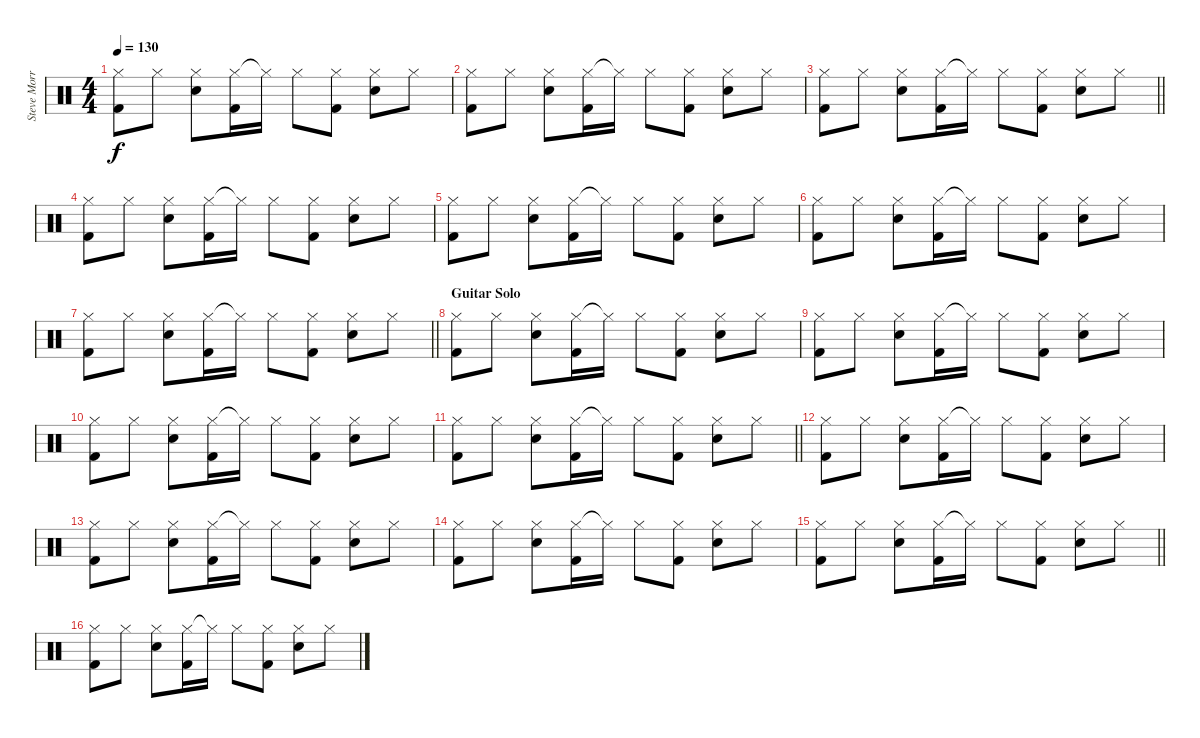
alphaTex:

\track ("Steve Morris" "Steve Morr") {instrument percussion}
\staff {score}
\articulation defaults
\ts (4 4)
\tempo 130
\clef neutral
\ks c
("Hi-Hat (closed)" "Kick (hit) 2").8{dy f} "Hi-Hat (closed)".8 ("Hi-Hat (closed)" "Electric Snare (hit)").8 ("Hi-Hat (closed)" "Kick (hit) 2").16 "Hi-Hat (closed)"{t}.16 "Hi-Hat (closed)".8 ("Hi-Hat (closed)" "Kick (hit) 2").8 ("Hi-Hat (closed)" "Electric Snare (hit)").8 "Hi-Hat (closed)".8 |
("Hi-Hat (closed)" "Kick (hit) 2").8 "Hi-Hat (closed)".8 ("Hi-Hat (closed)" "Electric Snare (hit)").8 ("Hi-Hat (closed)" "Kick (hit) 2").16 "Hi-Hat (closed)"{t}.16 "Hi-Hat (closed)".8 ("Hi-Hat (closed)" "Kick (hit) 2").8 ("Hi-Hat (closed)" "Electric Snare (hit)").8 "Hi-Hat (closed)".8 |
\barLineRight lightlight
("Hi-Hat (closed)" "Kick (hit) 2").8 "Hi-Hat (closed)".8 ("Hi-Hat (closed)" "Electric Snare (hit)").8 ("Hi-Hat (closed)" "Kick (hit) 2").16 "Hi-Hat (closed)"{t}.16 "Hi-Hat (closed)".8 ("Hi-Hat (closed)" "Kick (hit) 2").8 ("Hi-Hat (closed)" "Electric Snare (hit)").8 "Hi-Hat (closed)".8 |
("Hi-Hat (closed)" "Kick (hit) 2").8 "Hi-Hat (closed)".8 ("Hi-Hat (closed)" "Electric Snare (hit)").8 ("Hi-Hat (closed)" "Kick (hit) 2").16 "Hi-Hat (closed)"{t}.16 "Hi-Hat (closed)".8 ("Hi-Hat (closed)" "Kick (hit) 2").8 ("Hi-Hat (closed)" "Electric Snare (hit)").8 "Hi-Hat (closed)".8 |
("Hi-Hat (closed)" "Kick (hit) 2").8 "Hi-Hat (closed)".8 ("Hi-Hat (closed)" "Electric Snare (hit)").8 ("Hi-Hat (closed)" "Kick (hit) 2").16 "Hi-Hat (closed)"{t}.16 "Hi-Hat (closed)".8 ("Hi-Hat (closed)" "Kick (hit) 2").8 ("Hi-Hat (closed)" "Electric Snare (hit)").8 "Hi-Hat (closed)".8 |
("Hi-Hat (closed)" "Kick (hit) 2").8 "Hi-Hat (closed)".8 ("Hi-Hat (closed)" "Electric Snare (hit)").8 ("Hi-Hat (closed)" "Kick (hit) 2").16 "Hi-Hat (closed)"{t}.16 "Hi-Hat (closed)".8 ("Hi-Hat (closed)" "Kick (hit) 2").8 ("Hi-Hat (closed)" "Electric Snare (hit)").8 "Hi-Hat (closed)".8 |
\barLineRight lightlight
("Hi-Hat (closed)" "Kick (hit) 2").8 "Hi-Hat (closed)".8 ("Hi-Hat (closed)" "Electric Snare (hit)").8 ("Hi-Hat (closed)" "Kick (hit) 2").16 "Hi-Hat (closed)"{t}.16 "Hi-Hat (closed)".8 ("Hi-Hat (closed)" "Kick (hit) 2").8 ("Hi-Hat (closed)" "Electric Snare (hit)").8 "Hi-Hat (closed)".8 |
\section ("" "Guitar Solo")
("Hi-Hat (closed)" "Kick (hit) 2").8 "Hi-Hat (closed)".8 ("Hi-Hat (closed)" "Electric Snare (hit)").8 ("Hi-Hat (closed)" "Kick (hit) 2").16 "Hi-Hat (closed)"{t}.16 "Hi-Hat (closed)".8 ("Hi-Hat (closed)" "Kick (hit) 2").8 ("Hi-Hat (closed)" "Electric Snare (hit)").8 "Hi-Hat (closed)".8 |
("Hi-Hat (closed)" "Kick (hit) 2").8 "Hi-Hat (closed)".8 ("Hi-Hat (closed)" "Electric Snare (hit)").8 ("Hi-Hat (closed)" "Kick (hit) 2").16 "Hi-Hat (closed)"{t}.16 "Hi-Hat (closed)".8 ("Hi-Hat (closed)" "Kick (hit) 2").8 ("Hi-Hat (closed)" "Electric Snare (hit)").8 "Hi-Hat (closed)".8 |
("Hi-Hat (closed)" "Kick (hit) 2").8 "Hi-Hat (closed)".8 ("Hi-Hat (closed)" "Electric Snare (hit)").8 ("Hi-Hat (closed)" "Kick (hit) 2").16 "Hi-Hat (closed)"{t}.16 "Hi-Hat (closed)".8 ("Hi-Hat (closed)" "Kick (hit) 2").8 ("Hi-Hat (closed)" "Electric Snare (hit)").8 "Hi-Hat (closed)".8 |
\barLineRight lightlight
("Hi-Hat (closed)" "Kick (hit) 2").8 "Hi-Hat (closed)".8 ("Hi-Hat (closed)" "Electric Snare (hit)").8 ("Hi-Hat (closed)" "Kick (hit) 2").16 "Hi-Hat (closed)"{t}.16 "Hi-Hat (closed)".8 ("Hi-Hat (closed)" "Kick (hit) 2").8 ("Hi-Hat (closed)" "Electric Snare (hit)").8 "Hi-Hat (closed)".8 |
("Hi-Hat (closed)" "Kick (hit) 2").8 "Hi-Hat (closed)".8 ("Hi-Hat (closed)" "Electric Snare (hit)").8 ("Hi-Hat (closed)" "Kick (hit) 2").16 "Hi-Hat (closed)"{t}.16 "Hi-Hat (closed)".8 ("Hi-Hat (closed)" "Kick (hit) 2").8 ("Hi-Hat (closed)" "Electric Snare (hit)").8 "Hi-Hat (closed)".8 |
("Hi-Hat (closed)" "Kick (hit) 2").8 "Hi-Hat (closed)".8 ("Hi-Hat (closed)" "Electric Snare (hit)").8 ("Hi-Hat (closed)" "Kick (hit) 2").16 "Hi-Hat (closed)"{t}.16 "Hi-Hat (closed)".8 ("Hi-Hat (closed)" "Kick (hit) 2").8 ("Hi-Hat (closed)" "Electric Snare (hit)").8 "Hi-Hat (closed)".8 |
("Hi-Hat (closed)" "Kick (hit) 2").8 "Hi-Hat (closed)".8 ("Hi-Hat (closed)" "Electric Snare (hit)").8 ("Hi-Hat (closed)" "Kick (hit) 2").16 "Hi-Hat (closed)"{t}.16 "Hi-Hat (closed)".8 ("Hi-Hat (closed)" "Kick (hit) 2").8 ("Hi-Hat (closed)" "Electric Snare (hit)").8 "Hi-Hat (closed)".8 |
\barLineRight lightlight
("Hi-Hat (closed)" "Kick (hit) 2").8 "Hi-Hat (closed)".8 ("Hi-Hat (closed)" "Electric Snare (hit)").8 ("Hi-Hat (closed)" "Kick (hit) 2").16 "Hi-Hat (closed)"{t}.16 "Hi-Hat (closed)".8 ("Hi-Hat (closed)" "Kick (hit) 2").8 ("Hi-Hat (closed)" "Electric Snare (hit)").8 "Hi-Hat (closed)".8 |
("Hi-Hat (closed)" "Kick (hit) 2").8 "Hi-Hat (closed)".8 ("Hi-Hat (closed)" "Electric Snare (hit)").8 ("Hi-Hat (closed)" "Kick (hit) 2").16 "Hi-Hat (closed)"{t}.16 "Hi-Hat (closed)".8 ("Hi-Hat (closed)" "Kick (hit) 2").8 ("Hi-Hat (closed)" "Electric Snare (hit)").8 "Hi-Hat (closed)".8
